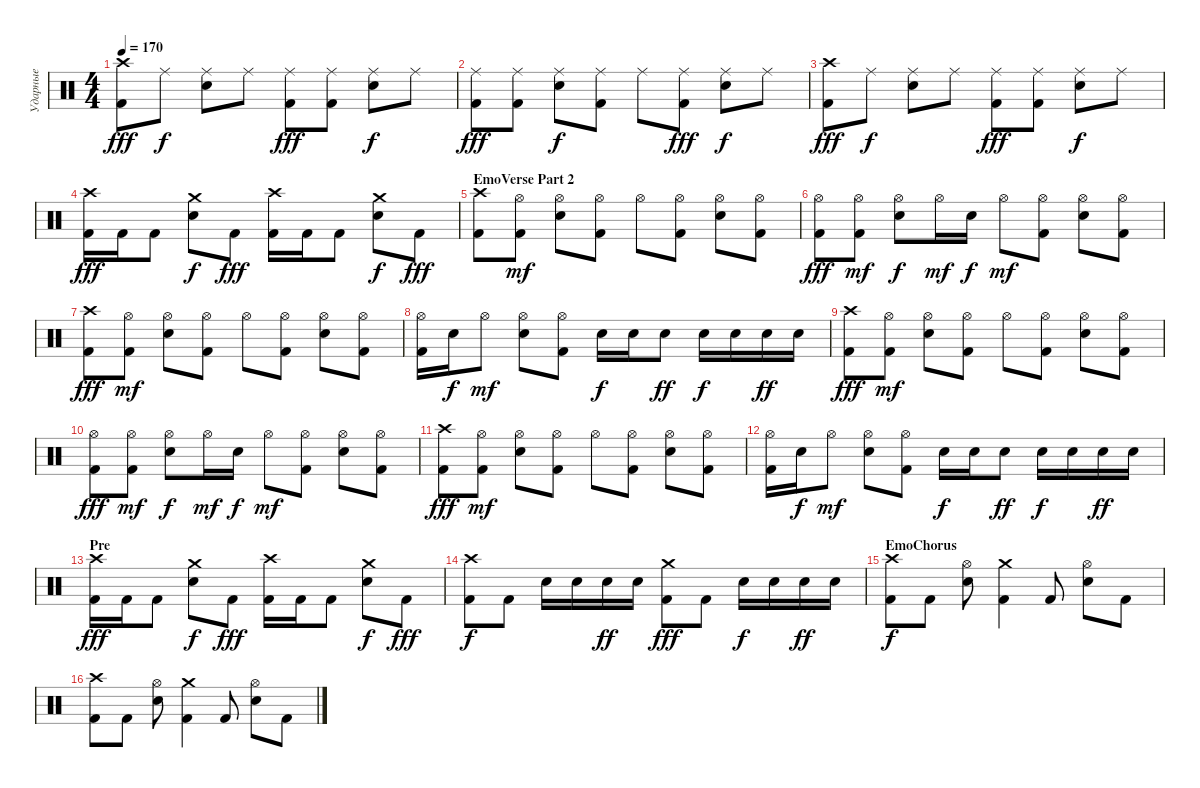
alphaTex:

\track ("Ударные" "Ударные") {instrument percussion}
\staff {score}
\articulation defaults
\ts (4 4)
\tempo 170
\clef neutral
\ks c
("Kick (hit) 2" "Crash high (hit)").8{dy fff} "Ride (middle)".8{dy f} ("Snare (hit) 2" "Ride (middle)").8 "Ride (middle)".8 ("Kick (hit) 2" "Ride (middle)").8{dy fff} ("Kick (hit) 2" "Ride (middle)").8 ("Snare (hit) 2" "Ride (middle)").8{dy f} "Ride (middle)".8 |
("Kick (hit) 2" "Ride (middle)").8{dy fff} ("Kick (hit) 2" "Ride (middle)").8 ("Snare (hit) 2" "Ride (middle)").8{dy f} ("Kick (hit) 2" "Ride (middle)").8 "Ride (middle)".8 ("Kick (hit) 2" "Ride (middle)").8{dy fff} ("Snare (hit) 2" "Ride (middle)").8{dy f} "Ride (middle)".8 |
("Kick (hit) 2" "Crash high (hit)").8{dy fff} "Ride (middle)".8{dy f} ("Snare (hit) 2" "Ride (middle)").8 "Ride (middle)".8 ("Kick (hit) 2" "Ride (middle)").8{dy fff} ("Kick (hit) 2" "Ride (middle)").8 ("Snare (hit) 2" "Ride (middle)").8{dy f} "Ride (middle)".8 |
("Kick (hit) 2" "Crash high (hit)").16{dy fff} "Kick (hit) 2".16 "Kick (hit) 2".8 ("Snare (hit) 2" "Crash medium (hit)").8{dy f} "Kick (hit) 2".8{dy fff} ("Kick (hit) 2" "Crash high (hit)").16 "Kick (hit) 2".16 "Kick (hit) 2".8 ("Snare (hit) 2" "Crash medium (hit)").8{dy f} "Kick (hit) 2".8{dy fff} |
\section ("" "EmoVerse Part 2")
("Kick (hit) 2" "Crash high (hit)").8 ("Kick (hit) 2" "Hi-Hat (open)").8{dy mf} ("Snare (hit) 2" "Hi-Hat (open)").8 ("Kick (hit) 2" "Hi-Hat (open)").8 "Hi-Hat (open)".8 ("Kick (hit) 2" "Hi-Hat (open)").8 ("Snare (hit) 2" "Hi-Hat (open)").8 ("Kick (hit) 2" "Hi-Hat (open)").8 |
("Kick (hit) 2" "Hi-Hat (open)").8{dy fff} ("Kick (hit) 2" "Hi-Hat (open)").8{dy mf} ("Snare (hit) 2" "Hi-Hat (open)").8{dy f} "Hi-Hat (open)".16{dy mf} "Snare (hit) 2".16{dy f} "Hi-Hat (open)".8{dy mf} ("Kick (hit) 2" "Hi-Hat (open)").8 ("Snare (hit) 2" "Hi-Hat (open)").8 ("Kick (hit) 2" "Hi-Hat (open)").8 |
("Kick (hit) 2" "Crash high (hit)").8{dy fff} ("Kick (hit) 2" "Hi-Hat (open)").8{dy mf} ("Snare (hit) 2" "Hi-Hat (open)").8 ("Kick (hit) 2" "Hi-Hat (open)").8 "Hi-Hat (open)".8 ("Kick (hit) 2" "Hi-Hat (open)").8 ("Snare (hit) 2" "Hi-Hat (open)").8 ("Kick (hit) 2" "Hi-Hat (open)").8 |
("Kick (hit) 2" "Hi-Hat (open)").16 "Snare (hit) 2".16{dy f} "Hi-Hat (open)".8{dy mf} ("Snare (hit) 2" "Hi-Hat (open)").8 ("Kick (hit) 2" "Hi-Hat (open)").8 "Snare (hit) 2".16{dy f} "Snare (hit) 2".16 "Snare (hit) 2".8{dy ff} "Snare (hit) 2".16{dy f} "Snare (hit) 2".16 "Snare (hit) 2".16{dy ff} "Snare (hit) 2".16 |
("Kick (hit) 2" "Crash high (hit)").8{dy fff} ("Kick (hit) 2" "Hi-Hat (open)").8{dy mf} ("Snare (hit) 2" "Hi-Hat (open)").8 ("Kick (hit) 2" "Hi-Hat (open)").8 "Hi-Hat (open)".8 ("Kick (hit) 2" "Hi-Hat (open)").8 ("Snare (hit) 2" "Hi-Hat (open)").8 ("Kick (hit) 2" "Hi-Hat (open)").8 |
("Kick (hit) 2" "Hi-Hat (open)").8{dy fff} ("Kick (hit) 2" "Hi-Hat (open)").8{dy mf} ("Snare (hit) 2" "Hi-Hat (open)").8{dy f} "Hi-Hat (open)".16{dy mf} "Snare (hit) 2".16{dy f} "Hi-Hat (open)".8{dy mf} ("Kick (hit) 2" "Hi-Hat (open)").8 ("Snare (hit) 2" "Hi-Hat (open)").8 ("Kick (hit) 2" "Hi-Hat (open)").8 |
("Kick (hit) 2" "Crash high (hit)").8{dy fff} ("Kick (hit) 2" "Hi-Hat (open)").8{dy mf} ("Snare (hit) 2" "Hi-Hat (open)").8 ("Kick (hit) 2" "Hi-Hat (open)").8 "Hi-Hat (open)".8 ("Kick (hit) 2" "Hi-Hat (open)").8 ("Snare (hit) 2" "Hi-Hat (open)").8 ("Kick (hit) 2" "Hi-Hat (open)").8 |
("Kick (hit) 2" "Hi-Hat (open)").16 "Snare (hit) 2".16{dy f} "Hi-Hat (open)".8{dy mf} ("Snare (hit) 2" "Hi-Hat (open)").8 ("Kick (hit) 2" "Hi-Hat (open)").8 "Snare (hit) 2".16{dy f} "Snare (hit) 2".16 "Snare (hit) 2".8{dy ff} "Snare (hit) 2".16{dy f} "Snare (hit) 2".16 "Snare (hit) 2".16{dy ff} "Snare (hit) 2".16 |
\section ("" "Pre")
("Kick (hit) 2" "Crash high (hit)").16{dy fff} "Kick (hit) 2".16 "Kick (hit) 2".8 ("Snare (hit) 2" "Crash medium (hit)").8{dy f} "Kick (hit) 2".8{dy fff} ("Kick (hit) 2" "Crash high (hit)").16 "Kick (hit) 2".16 "Kick (hit) 2".8 ("Snare (hit) 2" "Crash medium (hit)").8{dy f} "Kick (hit) 2".8{dy fff} |
("Kick (hit) 2" "Crash high (hit)").8{dy f} "Kick (hit) 2".8 "Snare (hit) 2".16 "Snare (hit) 2".16 "Snare (hit) 2".16{dy ff} "Snare (hit) 2".16 ("Kick (hit) 2" "Crash medium (hit)").8{dy fff} "Kick (hit) 2".8 "Snare (hit) 2".16{dy f} "Snare (hit) 2".16 "Snare (hit) 2".16{dy ff} "Snare (hit) 2".16 |
\section ("" "EmoChorus")
("Kick (hit) 2" "Crash high (hit)").8{dy f} "Kick (hit) 2".8 ("Snare (hit) 2" "Hi-Hat (open)").8 ("Kick (hit) 2" "Crash medium (hit)").4 "Kick (hit) 2".8 ("Snare (hit) 2" "Hi-Hat (open)").8 "Kick (hit) 2".8 |
("Kick (hit) 2" "Crash high (hit)").8 "Kick (hit) 2".8 ("Snare (hit) 2" "Hi-Hat (open)").8 ("Kick (hit) 2" "Crash medium (hit)").4 "Kick (hit) 2".8 ("Snare (hit) 2" "Hi-Hat (open)").8 "Kick (hit) 2".8
